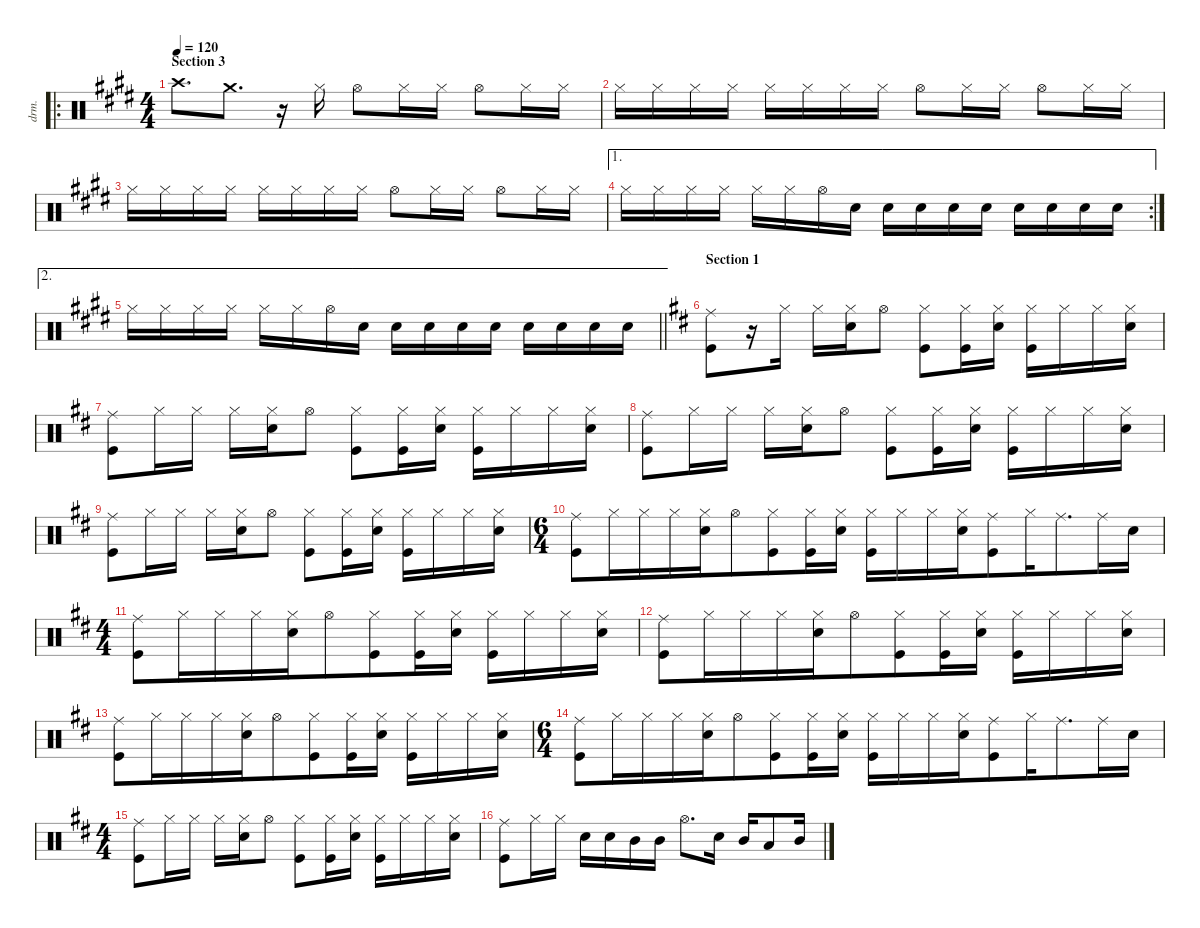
\defaultSystemsLayout 4
\hideDynamics
\bracketExtendMode nobrackets
\otherSystemsTrackNameOrientation horizontal
\track ("Drums" "drm.") {instrument percussion}
\staff {score}
\articulation defaults
\ro
\ts (4 4)
\section ("" "Section 3")
\tempo 120
\clef neutral
\ks e "Crash high (hit)"{acc forcenatural}.8{d dy f} "Crash medium (hit)"{acc forcenatural}.8{d}
r.16 "Hi-Hat (closed)"{acc forcenatural}.16 "Hi-Hat (open)"{acc forcenatural}.8 "Hi-Hat (closed)"{acc forcenatural}.16 "Hi-Hat (closed)"{acc forcenatural}.16 "Hi-Hat (open)"{acc forcenatural}.8 "Hi-Hat (closed)"{acc forcenatural}.16 "Hi-Hat (closed)"{acc forcenatural}.16 |
"Hi-Hat (closed)"{acc forcenatural}.16 "Hi-Hat (closed)"{acc forcenatural}.16 "Hi-Hat (closed)"{acc forcenatural}.16 "Hi-Hat (closed)"{acc forcenatural}.16 "Hi-Hat (closed)"{acc forcenatural}.16 "Hi-Hat (closed)"{acc forcenatural}.16 "Hi-Hat (closed)"{acc forcenatural}.16 "Hi-Hat (closed)"{acc forcenatural}.16 "Hi-Hat (open)"{acc forcenatural}.8 "Hi-Hat (closed)"{acc forcenatural}.16 "Hi-Hat (closed)"{acc forcenatural}.16 "Hi-Hat (open)"{acc forcenatural}.8 "Hi-Hat (closed)"{acc forcenatural}.16 "Hi-Hat (closed)"{acc forcenatural}.16 |
"Hi-Hat (closed)"{acc forcenatural}.16 "Hi-Hat (closed)"{acc forcenatural}.16 "Hi-Hat (closed)"{acc forcenatural}.16 "Hi-Hat (closed)"{acc forcenatural}.16 "Hi-Hat (closed)"{acc forcenatural}.16 "Hi-Hat (closed)"{acc forcenatural}.16 "Hi-Hat (closed)"{acc forcenatural}.16 "Hi-Hat (closed)"{acc forcenatural}.16 "Hi-Hat (open)"{acc forcenatural}.8 "Hi-Hat (closed)"{acc forcenatural}.16 "Hi-Hat (closed)"{acc forcenatural}.16 "Hi-Hat (open)"{acc forcenatural}.8 "Hi-Hat (closed)"{acc forcenatural}.16 "Hi-Hat (closed)"{acc forcenatural}.16 |
\ae 1
\rc 2 "Hi-Hat (closed)"{acc forcenatural}.16 "Hi-Hat (closed)"{acc forcenatural}.16 "Hi-Hat (closed)"{acc forcenatural}.16 "Hi-Hat (closed)"{acc forcenatural}.16 "Hi-Hat (closed)"{acc forcenatural}.16 "Hi-Hat (closed)"{acc forcenatural}.16 "Hi-Hat (open)"{acc forcenatural}.16 "Snare (hit) 2"{acc forcenatural}.16 "Snare (hit) 2"{acc forcenatural}.16 "Snare (hit) 2"{acc forcenatural}.16 "Snare (hit) 2"{acc forcenatural}.16 "Snare (hit) 2"{acc forcenatural}.16 "Snare (hit) 2"{acc forcenatural}.16 "Snare (hit) 2"{acc forcenatural}.16 "Snare (hit) 2"{acc forcenatural}.16 "Snare (hit) 2"{acc forcenatural}.16
|
\ae 2
\barLineRight lightlight "Hi-Hat (closed)"{acc forcenatural}.16 "Hi-Hat (closed)"{acc forcenatural}.16 "Hi-Hat (closed)"{acc forcenatural}.16 "Hi-Hat (closed)"{acc forcenatural}.16 "Hi-Hat (closed)"{acc forcenatural}.16 "Hi-Hat (closed)"{acc forcenatural}.16 "Hi-Hat (open)"{acc forcenatural}.16 "Snare (hit) 2"{acc forcenatural}.16 "Snare (hit) 2"{acc forcenatural}.16 "Snare (hit) 2"{acc forcenatural}.16 "Snare (hit) 2"{acc forcenatural}.16 "Snare (hit) 2"{acc forcenatural}.16 "Snare (hit) 2"{acc forcenatural}.16 "Snare (hit) 2"{acc forcenatural}.16 "Snare (hit) 2"{acc forcenatural}.16 "Snare (hit) 2"{acc forcenatural}.16
|
\section ("" "Section 1")
\ks d
("Ride (middle)"{acc forcenatural} "Kick (hit)"{acc forcenatural}).8 r.16 "Hi-Hat (closed)"{acc forcenatural}.16 "Hi-Hat (closed)"{acc forcenatural}.16 ("Hi-Hat (closed)"{acc forcenatural} "Snare (hit) 2"{acc forcenatural}).16 "Hi-Hat (open)"{acc forcenatural}.8 ("Hi-Hat (closed)"{acc forcenatural} "Kick (hit)"{acc forcenatural}).8 ("Hi-Hat (closed)"{acc forcenatural} "Kick (hit)"{acc forcenatural}).16 ("Hi-Hat (closed)"{acc forcenatural} "Snare (hit) 2"{acc forcenatural}).16 ("Hi-Hat (closed)"{acc forcenatural} "Kick (hit)"{acc forcenatural}).16 "Hi-Hat (closed)"{acc forcenatural}.16 "Hi-Hat (closed)"{acc forcenatural}.16 ("Hi-Hat (closed)"{acc forcenatural} "Snare (hit) 2"{acc forcenatural}).16 |
("Ride (middle)"{acc forcenatural} "Kick (hit)"{acc forcenatural}).8 "Hi-Hat (closed)"{acc forcenatural}.16 "Hi-Hat (closed)"{acc forcenatural}.16 "Hi-Hat (closed)"{acc forcenatural}.16 ("Hi-Hat (closed)"{acc forcenatural} "Snare (hit) 2"{acc forcenatural}).16 "Hi-Hat (open)"{acc forcenatural}.8 ("Hi-Hat (closed)"{acc forcenatural} "Kick (hit)"{acc forcenatural}).8 ("Hi-Hat (closed)"{acc forcenatural} "Kick (hit)"{acc forcenatural}).16 ("Hi-Hat (closed)"{acc forcenatural} "Snare (hit) 2"{acc forcenatural}).16 ("Hi-Hat (closed)"{acc forcenatural} "Kick (hit)"{acc forcenatural}).16 "Hi-Hat (closed)"{acc forcenatural}.16 "Hi-Hat (closed)"{acc forcenatural}.16 ("Hi-Hat (closed)"{acc forcenatural} "Snare (hit) 2"{acc forcenatural}).16 |
("Ride (middle)"{acc forcenatural} "Kick (hit)"{acc forcenatural}).8 "Hi-Hat (closed)"{acc forcenatural}.16 "Hi-Hat (closed)"{acc forcenatural}.16 "Hi-Hat (closed)"{acc forcenatural}.16 ("Hi-Hat (closed)"{acc forcenatural} "Snare (hit) 2"{acc forcenatural}).16 "Hi-Hat (open)"{acc forcenatural}.8 ("Hi-Hat (closed)"{acc forcenatural} "Kick (hit)"{acc forcenatural}).8 ("Hi-Hat (closed)"{acc forcenatural} "Kick (hit)"{acc forcenatural}).16 ("Hi-Hat (closed)"{acc forcenatural} "Snare (hit) 2"{acc forcenatural}).16 ("Hi-Hat (closed)"{acc forcenatural} "Kick (hit)"{acc forcenatural}).16 "Hi-Hat (closed)"{acc forcenatural}.16 "Hi-Hat (closed)"{acc forcenatural}.16 ("Hi-Hat (closed)"{acc forcenatural} "Snare (hit) 2"{acc forcenatural}).16 |
("Ride (middle)"{acc forcenatural} "Kick (hit)"{acc forcenatural}).8 "Hi-Hat (closed)"{acc forcenatural}.16 "Hi-Hat (closed)"{acc forcenatural}.16 "Hi-Hat (closed)"{acc forcenatural}.16 ("Hi-Hat (closed)"{acc forcenatural} "Snare (hit) 2"{acc forcenatural}).16 "Hi-Hat (open)"{acc forcenatural}.8 ("Hi-Hat (closed)"{acc forcenatural} "Kick (hit)"{acc forcenatural}).8 ("Hi-Hat (closed)"{acc forcenatural} "Kick (hit)"{acc forcenatural}).16 ("Hi-Hat (closed)"{acc forcenatural} "Snare (hit) 2"{acc forcenatural}).16 ("Hi-Hat (closed)"{acc forcenatural} "Kick (hit)"{acc forcenatural}).16 "Hi-Hat (closed)"{acc forcenatural}.16 "Hi-Hat (closed)"{acc forcenatural}.16 ("Hi-Hat (closed)"{acc forcenatural} "Snare (hit) 2"{acc forcenatural}).16 |
\ts (6 4)
\beaming (8 6 6)
("Ride (middle)"{acc forcenatural} "Kick (hit)"{acc forcenatural}).8 "Hi-Hat (closed)"{acc forcenatural}.16 "Hi-Hat (closed)"{acc forcenatural}.16 "Hi-Hat (closed)"{acc forcenatural}.16 ("Hi-Hat (closed)"{acc forcenatural} "Snare (hit) 2"{acc forcenatural}).16 "Hi-Hat (open)"{acc forcenatural}.8 ("Hi-Hat (closed)"{acc forcenatural} "Kick (hit)"{acc forcenatural}).8 ("Hi-Hat (closed)"{acc forcenatural} "Kick (hit)"{acc forcenatural}).16 ("Hi-Hat (closed)"{acc forcenatural} "Snare (hit) 2"{acc forcenatural}).16 ("Hi-Hat (closed)"{acc forcenatural} "Kick (hit)"{acc forcenatural}).16 "Hi-Hat (closed)"{acc forcenatural}.16 "Hi-Hat (closed)"{acc forcenatural}.16 ("Hi-Hat (closed)"{acc forcenatural} "Snare (hit) 2"{acc forcenatural}).16 ("Ride (middle)"{acc forcenatural} "Kick (hit)"{acc forcenatural}).8 "Hi-Hat (closed)"{acc forcenatural}.16 "Ride (middle)"{acc forcenatural}.8{d} "Ride (middle)"{acc forcenatural}.16 "Snare (hit) 2"{acc forcenatural}.16 |
\ts (4 4)
\beaming (8 6 6)
("Ride (middle)"{acc forcenatural} "Kick (hit)"{acc forcenatural}).8 "Hi-Hat (closed)"{acc forcenatural}.16 "Hi-Hat (closed)"{acc forcenatural}.16 "Hi-Hat (closed)"{acc forcenatural}.16 ("Hi-Hat (closed)"{acc forcenatural} "Snare (hit) 2"{acc forcenatural}).16 "Hi-Hat (open)"{acc forcenatural}.8 ("Hi-Hat (closed)"{acc forcenatural} "Kick (hit)"{acc forcenatural}).8 ("Hi-Hat (closed)"{acc forcenatural} "Kick (hit)"{acc forcenatural}).16 ("Hi-Hat (closed)"{acc forcenatural} "Snare (hit) 2"{acc forcenatural}).16 ("Hi-Hat (closed)"{acc forcenatural} "Kick (hit)"{acc forcenatural}).16 "Hi-Hat (closed)"{acc forcenatural}.16 "Hi-Hat (closed)"{acc forcenatural}.16 ("Hi-Hat (closed)"{acc forcenatural} "Snare (hit) 2"{acc forcenatural}).16 |
("Ride (middle)"{acc forcenatural} "Kick (hit)"{acc forcenatural}).8 "Hi-Hat (closed)"{acc forcenatural}.16 "Hi-Hat (closed)"{acc forcenatural}.16 "Hi-Hat (closed)"{acc forcenatural}.16 ("Hi-Hat (closed)"{acc forcenatural} "Snare (hit) 2"{acc forcenatural}).16 "Hi-Hat (open)"{acc forcenatural}.8 ("Hi-Hat (closed)"{acc forcenatural} "Kick (hit)"{acc forcenatural}).8 ("Hi-Hat (closed)"{acc forcenatural} "Kick (hit)"{acc forcenatural}).16 ("Hi-Hat (closed)"{acc forcenatural} "Snare (hit) 2"{acc forcenatural}).16 ("Hi-Hat (closed)"{acc forcenatural} "Kick (hit)"{acc forcenatural}).16 "Hi-Hat (closed)"{acc forcenatural}.16 "Hi-Hat (closed)"{acc forcenatural}.16 ("Hi-Hat (closed)"{acc forcenatural} "Snare (hit) 2"{acc forcenatural}).16 |
("Ride (middle)"{acc forcenatural} "Kick (hit)"{acc forcenatural}).8 "Hi-Hat (closed)"{acc forcenatural}.16 "Hi-Hat (closed)"{acc forcenatural}.16 "Hi-Hat (closed)"{acc forcenatural}.16 ("Hi-Hat (closed)"{acc forcenatural} "Snare (hit) 2"{acc forcenatural}).16 "Hi-Hat (open)"{acc forcenatural}.8 ("Hi-Hat (closed)"{acc forcenatural} "Kick (hit)"{acc forcenatural}).8 ("Hi-Hat (closed)"{acc forcenatural} "Kick (hit)"{acc forcenatural}).16 ("Hi-Hat (closed)"{acc forcenatural} "Snare (hit) 2"{acc forcenatural}).16 ("Hi-Hat (closed)"{acc forcenatural} "Kick (hit)"{acc forcenatural}).16 "Hi-Hat (closed)"{acc forcenatural}.16 "Hi-Hat (closed)"{acc forcenatural}.16 ("Hi-Hat (closed)"{acc forcenatural} "Snare (hit) 2"{acc forcenatural}).16 |
\ts (6 4)
\beaming (8 6 6)
("Ride (middle)"{acc forcenatural} "Kick (hit)"{acc forcenatural}).8 "Hi-Hat (closed)"{acc forcenatural}.16 "Hi-Hat (closed)"{acc forcenatural}.16 "Hi-Hat (closed)"{acc forcenatural}.16 ("Hi-Hat (closed)"{acc forcenatural} "Snare (hit) 2"{acc forcenatural}).16 "Hi-Hat (open)"{acc forcenatural}.8 ("Hi-Hat (closed)"{acc forcenatural} "Kick (hit)"{acc forcenatural}).8 ("Hi-Hat (closed)"{acc forcenatural} "Kick (hit)"{acc forcenatural}).16 ("Hi-Hat (closed)"{acc forcenatural} "Snare (hit) 2"{acc forcenatural}).16 ("Hi-Hat (closed)"{acc forcenatural} "Kick (hit)"{acc forcenatural}).16 "Hi-Hat (closed)"{acc forcenatural}.16 "Hi-Hat (closed)"{acc forcenatural}.16 ("Hi-Hat (closed)"{acc forcenatural} "Snare (hit) 2"{acc forcenatural}).16 ("Ride (middle)"{acc forcenatural} "Kick (hit)"{acc forcenatural}).8 "Hi-Hat (closed)"{acc forcenatural}.16 "Ride (middle)"{acc forcenatural}.8{d} "Ride (middle)"{acc forcenatural}.16 "Snare (hit) 2"{acc forcenatural}.16 |
\ts (4 4)
\beaming (8 2 2 2 2)
("Ride (middle)"{acc forcenatural} "Kick (hit)"{acc forcenatural}).8 "Hi-Hat (closed)"{acc forcenatural}.16 "Hi-Hat (closed)"{acc forcenatural}.16 "Hi-Hat (closed)"{acc forcenatural}.16 ("Hi-Hat (closed)"{acc forcenatural} "Snare (hit) 2"{acc forcenatural}).16 "Hi-Hat (open)"{acc forcenatural}.8 ("Hi-Hat (closed)"{acc forcenatural} "Kick (hit)"{acc forcenatural}).8 ("Hi-Hat (closed)"{acc forcenatural} "Kick (hit)"{acc forcenatural}).16 ("Hi-Hat (closed)"{acc forcenatural} "Snare (hit) 2"{acc forcenatural}).16 ("Hi-Hat (closed)"{acc forcenatural} "Kick (hit)"{acc forcenatural}).16 "Hi-Hat (closed)"{acc forcenatural}.16 "Hi-Hat (closed)"{acc forcenatural}.16 ("Hi-Hat (closed)"{acc forcenatural} "Snare (hit) 2"{acc forcenatural}).16 |
("Ride (middle)"{acc forcenatural} "Kick (hit)"{acc forcenatural}).8 "Hi-Hat (closed)"{acc forcenatural}.16 "Hi-Hat (closed)"{acc forcenatural}.16 "Snare (hit) 2"{acc forcenatural}.16 "Snare (hit) 2"{acc forcenatural}.16 "Mid Tom (hit)"{acc forcenatural}.16 "Mid Tom (hit)"{acc forcenatural}.16 "Hi-Hat (open)"{acc forcenatural}.8{d} "Snare (hit) 2"{acc forcenatural}.16 "Mid Tom (hit)"{acc forcenatural}.16 "Low Tom (hit)"{acc forcenatural}.8 "Mid Tom (hit)"{acc forcenatural}.16
